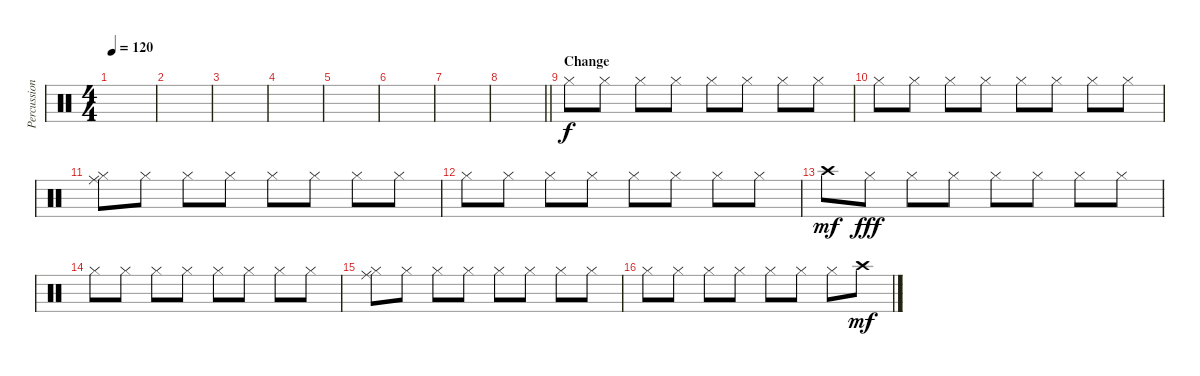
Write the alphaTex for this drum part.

\track ("Percussion 2" "Percussion") {instrument percussion}
\staff {score}
\articulation defaults
\ts (4 4)
\tempo 120
\clef neutral
\ks c
|
|
|
|
|
|
|
\barLineRight lightlight
|
\section ("" "Change")
"Hi-Hat (closed)".8 "Hi-Hat (closed)".8 "Hi-Hat (closed)".8 "Hi-Hat (closed)".8 "Hi-Hat (closed)".8 "Hi-Hat (closed)".8 "Hi-Hat (closed)".8 "Hi-Hat (closed)".8 |
"Hi-Hat (closed)".8 "Hi-Hat (closed)".8 "Hi-Hat (closed)".8 "Hi-Hat (closed)".8 "Hi-Hat (closed)".8 "Hi-Hat (closed)".8 "Hi-Hat (closed)".8 "Hi-Hat (closed)".8 |
("Hi-Hat (closed)" "Ride (middle)").8 "Hi-Hat (closed)".8 "Hi-Hat (closed)".8 "Hi-Hat (closed)".8 "Hi-Hat (closed)".8 "Hi-Hat (closed)".8 "Hi-Hat (closed)".8 "Hi-Hat (closed)".8 |
"Hi-Hat (closed)".8 "Hi-Hat (closed)".8 "Hi-Hat (closed)".8 "Hi-Hat (closed)".8 "Hi-Hat (closed)".8 "Hi-Hat (closed)".8 "Hi-Hat (closed)".8 "Hi-Hat (closed)".8 |
"Crash high (hit)".8{dy mf} "Hi-Hat (closed)".8{dy fff} "Hi-Hat (closed)".8 "Hi-Hat (closed)".8 "Hi-Hat (closed)".8 "Hi-Hat (closed)".8 "Hi-Hat (closed)".8 "Hi-Hat (closed)".8 |
"Hi-Hat (closed)".8 "Hi-Hat (closed)".8 "Hi-Hat (closed)".8 "Hi-Hat (closed)".8 "Hi-Hat (closed)".8 "Hi-Hat (closed)".8 "Hi-Hat (closed)".8 "Hi-Hat (closed)".8 |
("Hi-Hat (closed)" "Ride (middle)").8 "Hi-Hat (closed)".8 "Hi-Hat (closed)".8 "Hi-Hat (closed)".8 "Hi-Hat (closed)".8 "Hi-Hat (closed)".8 "Hi-Hat (closed)".8 "Hi-Hat (closed)".8 |
"Hi-Hat (closed)".8 "Hi-Hat (closed)".8 "Hi-Hat (closed)".8 "Hi-Hat (closed)".8 "Hi-Hat (closed)".8 "Hi-Hat (closed)".8 "Hi-Hat (closed)".8 "Crash high (hit)".8{dy mf}
